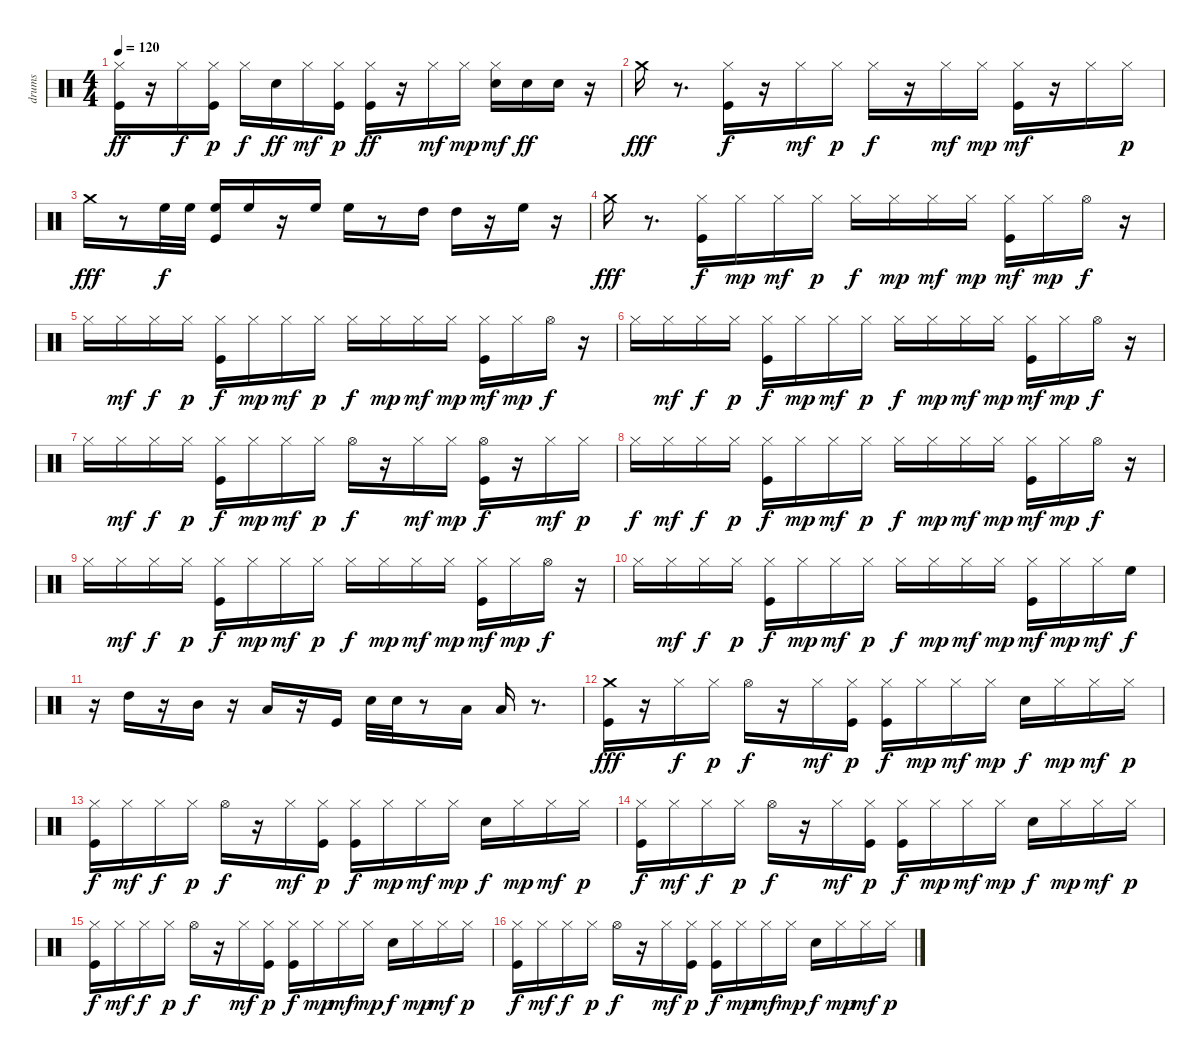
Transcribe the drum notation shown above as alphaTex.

\track ("drums" "drums") {instrument percussion}
\staff {score}
\articulation defaults
\ts (4 4)
\tempo 120
\clef neutral
\ks c
("Kick (hit)" "Hi-Hat (closed)").16{dy ff} r.16 "Hi-Hat (closed)".16{dy f} ("Kick (hit)" "Hi-Hat (closed)").16{dy p} "Hi-Hat (closed)".16{dy f} "Electric Snare (hit)".16{dy ff} "Hi-Hat (closed)".16{dy mf} ("Kick (hit)" "Hi-Hat (closed)").16{dy p} ("Kick (hit)" "Hi-Hat (closed)").16{dy ff} r.16 "Hi-Hat (closed)".16{dy mf} "Hi-Hat (closed)".16{dy mp} ("Electric Snare (hit)" "Hi-Hat (closed)").16{dy mf} "Electric Snare (hit)".16{dy ff} "Electric Snare (hit)".16 r.16 |
"Crash medium (hit)".16{dy fff} r.8{d} ("Kick (hit)" "Hi-Hat (closed)").16{dy f} r.16 "Hi-Hat (closed)".16{dy mf} "Hi-Hat (closed)".16{dy p} "Hi-Hat (closed)".16{dy f} r.16 "Hi-Hat (closed)".16{dy mf} "Hi-Hat (closed)".16{dy mp} ("Kick (hit)" "Hi-Hat (closed)").16{dy mf} r.16 "Hi-Hat (closed)".16 "Hi-Hat (closed)".16{dy p} |
"Crash medium (hit)".16{dy fff} r.8 "High Floor Tom (hit)".32{dy f} "High Floor Tom (hit)".32 ("Kick (hit)" "High Floor Tom (hit)").16 "High Floor Tom (hit)".16 r.16 "High Floor Tom (hit)".16 "High Floor Tom (hit)".16 r.8 "High Tom (hit)".16 "High Tom (hit)".16 r.16 "High Floor Tom (hit)".16 r.16 |
"Crash medium (hit)".16{dy fff} r.8{d} ("Kick (hit)" "Hi-Hat (closed)").16{dy f} "Hi-Hat (closed)".16{dy mp} "Hi-Hat (closed)".16{dy mf} "Hi-Hat (closed)".16{dy p} "Hi-Hat (closed)".16{dy f} "Hi-Hat (closed)".16{dy mp} "Hi-Hat (closed)".16{dy mf} "Hi-Hat (closed)".16{dy mp} ("Kick (hit)" "Hi-Hat (closed)").16{dy mf} "Hi-Hat (closed)".16{dy mp} "Hi-Hat (open)".16{dy f} r.16 |
"Hi-Hat (closed)".16 "Hi-Hat (closed)".16{dy mf} "Hi-Hat (closed)".16{dy f} "Hi-Hat (closed)".16{dy p} ("Kick (hit)" "Hi-Hat (closed)").16{dy f} "Hi-Hat (closed)".16{dy mp} "Hi-Hat (closed)".16{dy mf} "Hi-Hat (closed)".16{dy p} "Hi-Hat (closed)".16{dy f} "Hi-Hat (closed)".16{dy mp} "Hi-Hat (closed)".16{dy mf} "Hi-Hat (closed)".16{dy mp} ("Kick (hit)" "Hi-Hat (closed)").16{dy mf} "Hi-Hat (closed)".16{dy mp} "Hi-Hat (open)".16{dy f} r.16 |
"Hi-Hat (closed)".16 "Hi-Hat (closed)".16{dy mf} "Hi-Hat (closed)".16{dy f} "Hi-Hat (closed)".16{dy p} ("Kick (hit)" "Hi-Hat (closed)").16{dy f} "Hi-Hat (closed)".16{dy mp} "Hi-Hat (closed)".16{dy mf} "Hi-Hat (closed)".16{dy p} "Hi-Hat (closed)".16{dy f} "Hi-Hat (closed)".16{dy mp} "Hi-Hat (closed)".16{dy mf} "Hi-Hat (closed)".16{dy mp} ("Kick (hit)" "Hi-Hat (closed)").16{dy mf} "Hi-Hat (closed)".16{dy mp} "Hi-Hat (open)".16{dy f} r.16 |
"Hi-Hat (closed)".16 "Hi-Hat (closed)".16{dy mf} "Hi-Hat (closed)".16{dy f} "Hi-Hat (closed)".16{dy p} ("Kick (hit)" "Hi-Hat (closed)").16{dy f} "Hi-Hat (closed)".16{dy mp} "Hi-Hat (closed)".16{dy mf} "Hi-Hat (closed)".16{dy p} "Hi-Hat (open)".16{dy f} r.16 "Hi-Hat (closed)".16{dy mf} "Hi-Hat (closed)".16{dy mp} ("Kick (hit)" "Hi-Hat (open)").16{dy f} r.16 "Hi-Hat (closed)".16{dy mf} "Hi-Hat (closed)".16{dy p} |
"Hi-Hat (closed)".16{dy f} "Hi-Hat (closed)".16{dy mf} "Hi-Hat (closed)".16{dy f} "Hi-Hat (closed)".16{dy p} ("Kick (hit)" "Hi-Hat (closed)").16{dy f} "Hi-Hat (closed)".16{dy mp} "Hi-Hat (closed)".16{dy mf} "Hi-Hat (closed)".16{dy p} "Hi-Hat (closed)".16{dy f} "Hi-Hat (closed)".16{dy mp} "Hi-Hat (closed)".16{dy mf} "Hi-Hat (closed)".16{dy mp} ("Kick (hit)" "Hi-Hat (closed)").16{dy mf} "Hi-Hat (closed)".16{dy mp} "Hi-Hat (open)".16{dy f} r.16 |
"Hi-Hat (closed)".16 "Hi-Hat (closed)".16{dy mf} "Hi-Hat (closed)".16{dy f} "Hi-Hat (closed)".16{dy p} ("Kick (hit)" "Hi-Hat (closed)").16{dy f} "Hi-Hat (closed)".16{dy mp} "Hi-Hat (closed)".16{dy mf} "Hi-Hat (closed)".16{dy p} "Hi-Hat (closed)".16{dy f} "Hi-Hat (closed)".16{dy mp} "Hi-Hat (closed)".16{dy mf} "Hi-Hat (closed)".16{dy mp} ("Kick (hit)" "Hi-Hat (closed)").16{dy mf} "Hi-Hat (closed)".16{dy mp} "Hi-Hat (open)".16{dy f} r.16 |
"Hi-Hat (closed)".16 "Hi-Hat (closed)".16{dy mf} "Hi-Hat (closed)".16{dy f} "Hi-Hat (closed)".16{dy p} ("Kick (hit)" "Hi-Hat (closed)").16{dy f} "Hi-Hat (closed)".16{dy mp} "Hi-Hat (closed)".16{dy mf} "Hi-Hat (closed)".16{dy p} "Hi-Hat (closed)".16{dy f} "Hi-Hat (closed)".16{dy mp} "Hi-Hat (closed)".16{dy mf} "Hi-Hat (closed)".16{dy mp} ("Kick (hit)" "Hi-Hat (closed)").16{dy mf} "Hi-Hat (closed)".16{dy mp} "Hi-Hat (closed)".16{dy mf} "High Floor Tom (hit)".16{dy f} |
r.16 "High Tom (hit)".16 r.16 "Mid Tom (hit)".16 r.16 "Low Tom (hit)".16 r.16 "Kick (hit)".16 "Electric Snare (hit)".32 "Electric Snare (hit)".32 r.8 "Low Tom (hit)".16 "Low Tom (hit)".16 r.8{d} |
("Kick (hit)" "Crash medium (hit)").16{dy fff} r.16 "Hi-Hat (closed)".16{dy f} "Hi-Hat (closed)".16{dy p} "Hi-Hat (open)".16{dy f} r.16 "Hi-Hat (closed)".16{dy mf} ("Kick (hit)" "Hi-Hat (closed)").16{dy p} ("Kick (hit)" "Hi-Hat (closed)").16{dy f} "Hi-Hat (closed)".16{dy mp} "Hi-Hat (closed)".16{dy mf} "Hi-Hat (closed)".16{dy mp} "Electric Snare (hit)".16{dy f} "Hi-Hat (closed)".16{dy mp} "Hi-Hat (closed)".16{dy mf} "Hi-Hat (closed)".16{dy p} |
("Kick (hit)" "Hi-Hat (closed)").16{dy f} "Hi-Hat (closed)".16{dy mf} "Hi-Hat (closed)".16{dy f} "Hi-Hat (closed)".16{dy p} "Hi-Hat (open)".16{dy f} r.16 "Hi-Hat (closed)".16{dy mf} ("Kick (hit)" "Hi-Hat (closed)").16{dy p} ("Kick (hit)" "Hi-Hat (closed)").16{dy f} "Hi-Hat (closed)".16{dy mp} "Hi-Hat (closed)".16{dy mf} "Hi-Hat (closed)".16{dy mp} "Electric Snare (hit)".16{dy f} "Hi-Hat (closed)".16{dy mp} "Hi-Hat (closed)".16{dy mf} "Hi-Hat (closed)".16{dy p} |
("Kick (hit)" "Hi-Hat (closed)").16{dy f} "Hi-Hat (closed)".16{dy mf} "Hi-Hat (closed)".16{dy f} "Hi-Hat (closed)".16{dy p} "Hi-Hat (open)".16{dy f} r.16 "Hi-Hat (closed)".16{dy mf} ("Kick (hit)" "Hi-Hat (closed)").16{dy p} ("Kick (hit)" "Hi-Hat (closed)").16{dy f} "Hi-Hat (closed)".16{dy mp} "Hi-Hat (closed)".16{dy mf} "Hi-Hat (closed)".16{dy mp} "Electric Snare (hit)".16{dy f} "Hi-Hat (closed)".16{dy mp} "Hi-Hat (closed)".16{dy mf} "Hi-Hat (closed)".16{dy p} |
("Kick (hit)" "Hi-Hat (closed)").16{dy f} "Hi-Hat (closed)".16{dy mf} "Hi-Hat (closed)".16{dy f} "Hi-Hat (closed)".16{dy p} "Hi-Hat (open)".16{dy f} r.16 "Hi-Hat (closed)".16{dy mf} ("Kick (hit)" "Hi-Hat (closed)").16{dy p} ("Kick (hit)" "Hi-Hat (closed)").16{dy f} "Hi-Hat (closed)".16{dy mp} "Hi-Hat (closed)".16{dy mf} "Hi-Hat (closed)".16{dy mp} "Electric Snare (hit)".16{dy f} "Hi-Hat (closed)".16{dy mp} "Hi-Hat (closed)".16{dy mf} "Hi-Hat (closed)".16{dy p} |
("Kick (hit)" "Hi-Hat (closed)").16{dy f} "Hi-Hat (closed)".16{dy mf} "Hi-Hat (closed)".16{dy f} "Hi-Hat (closed)".16{dy p} "Hi-Hat (open)".16{dy f} r.16 "Hi-Hat (closed)".16{dy mf} ("Kick (hit)" "Hi-Hat (closed)").16{dy p} ("Kick (hit)" "Hi-Hat (closed)").16{dy f} "Hi-Hat (closed)".16{dy mp} "Hi-Hat (closed)".16{dy mf} "Hi-Hat (closed)".16{dy mp} "Electric Snare (hit)".16{dy f} "Hi-Hat (closed)".16{dy mp} "Hi-Hat (closed)".16{dy mf} "Hi-Hat (closed)".16{dy p}
